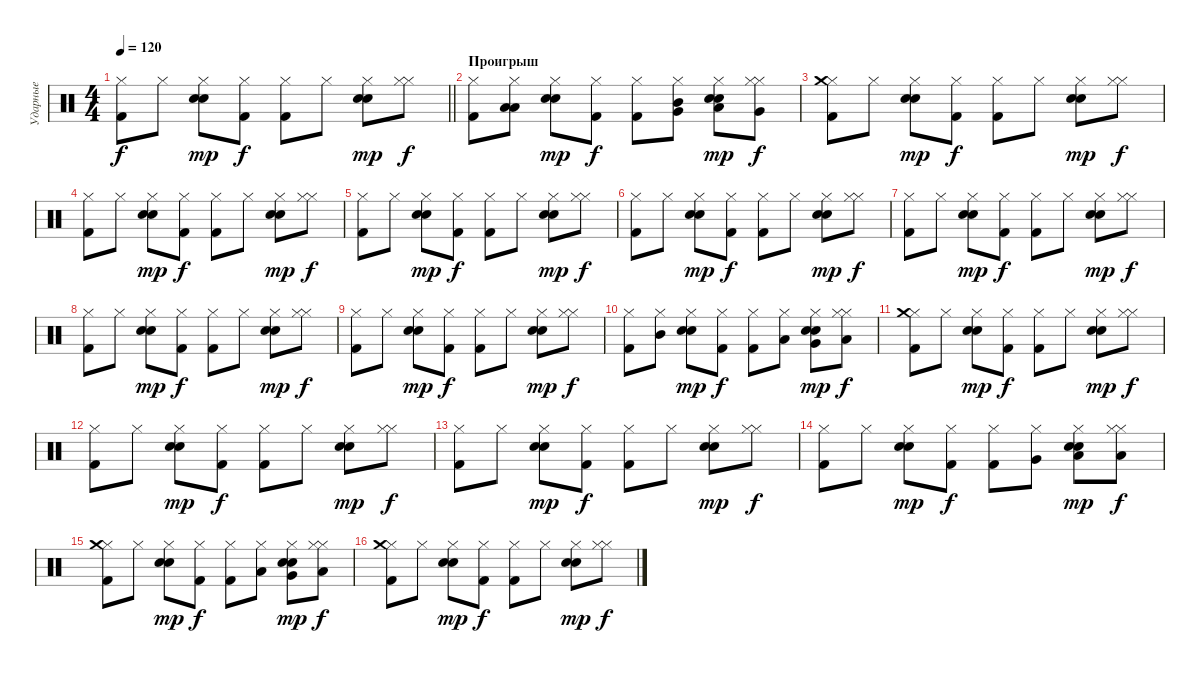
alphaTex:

\track ("Ударные" "Ударные") {instrument percussion}
\staff {score}
\articulation defaults
\ts (4 4)
\tempo 120
\clef neutral
\barLineRight lightlight
\ks c
("Kick (hit) 2" "Hi-Hat (closed)").8{dy f} "Hi-Hat (closed)".8 ("Hand Clap (hit)" "Hi-Hat (closed)" "Electric Snare (hit)").8{dy mp} ("Kick (hit) 2" "Hi-Hat (closed)").8{dy f} ("Kick (hit) 2" "Hi-Hat (closed)").8 "Hi-Hat (closed)".8 ("Hand Clap (hit)" "Hi-Hat (closed)" "Electric Snare (hit)").8{dy mp} ("Hi-Hat (closed)" "Hi-Hat (closed)").8{dy f} |
\section ("" "Проигрыш")
("Kick (hit) 2" "Hi-Hat (closed)").8 ("Hi-Hat (closed)" "Low Tom (hit)" "Low Floor Tom (hit)").8 ("Hand Clap (hit)" "Hi-Hat (closed)" "Electric Snare (hit)").8{dy mp} ("Kick (hit) 2" "Hi-Hat (closed)").8{dy f} ("Kick (hit) 2" "Hi-Hat (closed)").8 ("Hi-Hat (closed)" "Mid Tom (hit)" "Very Low Tom (hit)").8 ("Hand Clap (hit)" "Hi-Hat (closed)" "Electric Snare (hit)" "Low Floor Tom (hit)").8{dy mp} ("Hi-Hat (closed)" "Hi-Hat (closed)" "Very Low Tom (hit)").8{dy f} |
("Kick (hit) 2" "Hi-Hat (closed)" "Crash medium (hit)").8 "Hi-Hat (closed)".8 ("Hand Clap (hit)" "Hi-Hat (closed)" "Electric Snare (hit)").8{dy mp} ("Kick (hit) 2" "Hi-Hat (closed)").8{dy f} ("Kick (hit) 2" "Hi-Hat (closed)").8 "Hi-Hat (closed)".8 ("Hand Clap (hit)" "Hi-Hat (closed)" "Electric Snare (hit)").8{dy mp} ("Hi-Hat (closed)" "Hi-Hat (closed)").8{dy f} |
("Kick (hit) 2" "Hi-Hat (closed)").8 "Hi-Hat (closed)".8 ("Hand Clap (hit)" "Hi-Hat (closed)" "Electric Snare (hit)").8{dy mp} ("Kick (hit) 2" "Hi-Hat (closed)").8{dy f} ("Kick (hit) 2" "Hi-Hat (closed)").8 "Hi-Hat (closed)".8 ("Hand Clap (hit)" "Hi-Hat (closed)" "Electric Snare (hit)").8{dy mp} ("Hi-Hat (closed)" "Hi-Hat (closed)").8{dy f} |
("Kick (hit) 2" "Hi-Hat (closed)").8 "Hi-Hat (closed)".8 ("Hand Clap (hit)" "Hi-Hat (closed)" "Electric Snare (hit)").8{dy mp} ("Kick (hit) 2" "Hi-Hat (closed)").8{dy f} ("Kick (hit) 2" "Hi-Hat (closed)").8 "Hi-Hat (closed)".8 ("Hand Clap (hit)" "Hi-Hat (closed)" "Electric Snare (hit)").8{dy mp} ("Hi-Hat (closed)" "Hi-Hat (closed)").8{dy f} |
("Kick (hit) 2" "Hi-Hat (closed)").8 "Hi-Hat (closed)".8 ("Hand Clap (hit)" "Hi-Hat (closed)" "Electric Snare (hit)").8{dy mp} ("Kick (hit) 2" "Hi-Hat (closed)").8{dy f} ("Kick (hit) 2" "Hi-Hat (closed)").8 "Hi-Hat (closed)".8 ("Hand Clap (hit)" "Hi-Hat (closed)" "Electric Snare (hit)").8{dy mp} ("Hi-Hat (closed)" "Hi-Hat (closed)").8{dy f} |
("Kick (hit) 2" "Hi-Hat (closed)").8 "Hi-Hat (closed)".8 ("Hand Clap (hit)" "Hi-Hat (closed)" "Electric Snare (hit)").8{dy mp} ("Kick (hit) 2" "Hi-Hat (closed)").8{dy f} ("Kick (hit) 2" "Hi-Hat (closed)").8 "Hi-Hat (closed)".8 ("Hand Clap (hit)" "Hi-Hat (closed)" "Electric Snare (hit)").8{dy mp} ("Hi-Hat (closed)" "Hi-Hat (closed)").8{dy f} |
("Kick (hit) 2" "Hi-Hat (closed)").8 "Hi-Hat (closed)".8 ("Hand Clap (hit)" "Hi-Hat (closed)" "Electric Snare (hit)").8{dy mp} ("Kick (hit) 2" "Hi-Hat (closed)").8{dy f} ("Kick (hit) 2" "Hi-Hat (closed)").8 "Hi-Hat (closed)".8 ("Hand Clap (hit)" "Hi-Hat (closed)" "Electric Snare (hit)").8{dy mp} ("Hi-Hat (closed)" "Hi-Hat (closed)").8{dy f} |
("Kick (hit) 2" "Hi-Hat (closed)").8 "Hi-Hat (closed)".8 ("Hand Clap (hit)" "Hi-Hat (closed)" "Electric Snare (hit)").8{dy mp} ("Kick (hit) 2" "Hi-Hat (closed)").8{dy f} ("Kick (hit) 2" "Hi-Hat (closed)").8 "Hi-Hat (closed)".8 ("Hand Clap (hit)" "Hi-Hat (closed)" "Electric Snare (hit)").8{dy mp} ("Hi-Hat (closed)" "Hi-Hat (closed)").8{dy f} |
("Kick (hit) 2" "Hi-Hat (closed)").8 ("Hi-Hat (closed)" "Mid Tom (hit)").8 ("Hand Clap (hit)" "Hi-Hat (closed)" "Electric Snare (hit)").8{dy mp} ("Kick (hit) 2" "Hi-Hat (closed)").8{dy f} ("Kick (hit) 2" "Hi-Hat (closed)").8 ("Hi-Hat (closed)" "Low Floor Tom (hit)").8 ("Hand Clap (hit)" "Hi-Hat (closed)" "Electric Snare (hit)" "Very Low Tom (hit)").8{dy mp} ("Hi-Hat (closed)" "Hi-Hat (closed)" "Low Tom (hit)").8{dy f} |
("Kick (hit) 2" "Hi-Hat (closed)" "Crash medium (hit)").8 "Hi-Hat (closed)".8 ("Hand Clap (hit)" "Hi-Hat (closed)" "Electric Snare (hit)").8{dy mp} ("Kick (hit) 2" "Hi-Hat (closed)").8{dy f} ("Kick (hit) 2" "Hi-Hat (closed)").8 "Hi-Hat (closed)".8 ("Hand Clap (hit)" "Hi-Hat (closed)" "Electric Snare (hit)").8{dy mp} ("Hi-Hat (closed)" "Hi-Hat (closed)").8{dy f} |
("Kick (hit) 2" "Hi-Hat (closed)").8 "Hi-Hat (closed)".8 ("Hand Clap (hit)" "Hi-Hat (closed)" "Electric Snare (hit)").8{dy mp} ("Kick (hit) 2" "Hi-Hat (closed)").8{dy f} ("Kick (hit) 2" "Hi-Hat (closed)").8 "Hi-Hat (closed)".8 ("Hand Clap (hit)" "Hi-Hat (closed)" "Electric Snare (hit)").8{dy mp} ("Hi-Hat (closed)" "Hi-Hat (closed)").8{dy f} |
("Kick (hit) 2" "Hi-Hat (closed)").8 "Hi-Hat (closed)".8 ("Hand Clap (hit)" "Hi-Hat (closed)" "Electric Snare (hit)").8{dy mp} ("Kick (hit) 2" "Hi-Hat (closed)").8{dy f} ("Kick (hit) 2" "Hi-Hat (closed)").8 "Hi-Hat (closed)".8 ("Hand Clap (hit)" "Hi-Hat (closed)" "Electric Snare (hit)").8{dy mp} ("Hi-Hat (closed)" "Hi-Hat (closed)").8{dy f} |
("Kick (hit) 2" "Hi-Hat (closed)").8 "Hi-Hat (closed)".8 ("Hand Clap (hit)" "Hi-Hat (closed)" "Electric Snare (hit)").8{dy mp} ("Kick (hit) 2" "Hi-Hat (closed)").8{dy f} ("Kick (hit) 2" "Hi-Hat (closed)").8 ("Hi-Hat (closed)" "Very Low Tom (hit)").8 ("Hand Clap (hit)" "Hi-Hat (closed)" "Electric Snare (hit)" "Low Floor Tom (hit)").8{dy mp} ("Hi-Hat (closed)" "Hi-Hat (closed)" "Low Tom (hit)").8{dy f} |
("Kick (hit) 2" "Hi-Hat (closed)" "Crash medium (hit)").8 "Hi-Hat (closed)".8 ("Hand Clap (hit)" "Hi-Hat (closed)" "Electric Snare (hit)").8{dy mp} ("Kick (hit) 2" "Hi-Hat (closed)").8{dy f} ("Kick (hit) 2" "Hi-Hat (closed)").8 ("Hi-Hat (closed)" "Low Tom (hit)").8 ("Hand Clap (hit)" "Hi-Hat (closed)" "Electric Snare (hit)" "Very Low Tom (hit)").8{dy mp} ("Hi-Hat (closed)" "Hi-Hat (closed)" "Low Floor Tom (hit)").8{dy f} |
("Kick (hit) 2" "Hi-Hat (closed)" "Crash medium (hit)").8 "Hi-Hat (closed)".8 ("Hand Clap (hit)" "Hi-Hat (closed)" "Electric Snare (hit)").8{dy mp} ("Kick (hit) 2" "Hi-Hat (closed)").8{dy f} ("Kick (hit) 2" "Hi-Hat (closed)").8 "Hi-Hat (closed)".8 ("Hand Clap (hit)" "Hi-Hat (closed)" "Electric Snare (hit)").8{dy mp} ("Hi-Hat (closed)" "Hi-Hat (closed)").8{dy f}
